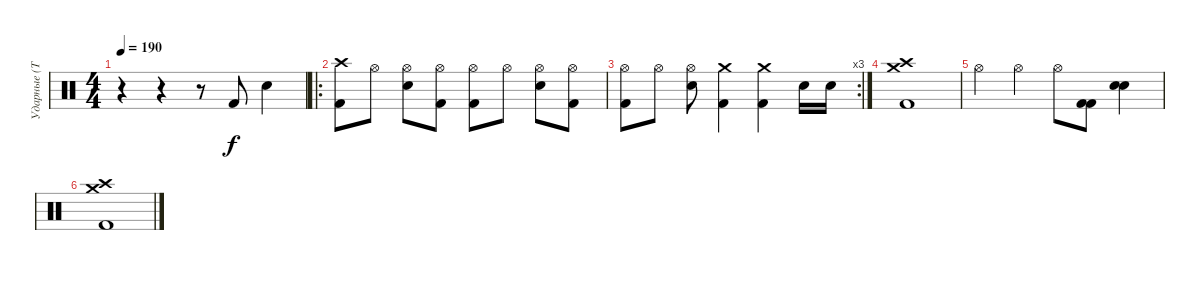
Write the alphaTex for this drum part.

\track ("Ударные (Тьодальв)" "Ударные (Т") {instrument percussion}
\staff {score}
\articulation defaults
\ts (4 4)
\tempo 190
\clef neutral
\ks c
r.4{dy f} r.4 r.8 "Kick (hit) 2".8 "Snare (hit) 2".4 |
\ro
("Crash high (hit)" "Kick (hit) 2").8 "Hi-Hat (open)".8 ("Hi-Hat (open)" "Snare (hit) 2").8 ("Hi-Hat (open)" "Kick (hit) 2").8 ("Hi-Hat (open)" "Kick (hit) 2").8 "Hi-Hat (open)".8 ("Hi-Hat (open)" "Snare (hit) 2").8 ("Hi-Hat (open)" "Kick (hit) 2").8 |
\rc 3
("Hi-Hat (open)" "Kick (hit) 2").8 "Hi-Hat (open)".8 ("Hi-Hat (open)" "Snare (hit) 2").8 ("Crash medium (hit)" "Kick (hit) 2").4 ("Crash medium (hit)" "Kick (hit) 2").4 "Snare (hit) 2".16 "Snare (hit) 2".16 |
("Crash high (hit)" "Crash medium (hit)" "Kick (hit) 2").1 |
"Hi-Hat (open)".4 "Hi-Hat (open)".4 "Hi-Hat (open)".8 ("Kick (hit) 2" "Kick (hit) 2").8 ("Snare (hit) 2" "Snare (hit) 2").4 |
("Crash high (hit)" "Crash medium (hit)" "Kick (hit) 2").1
